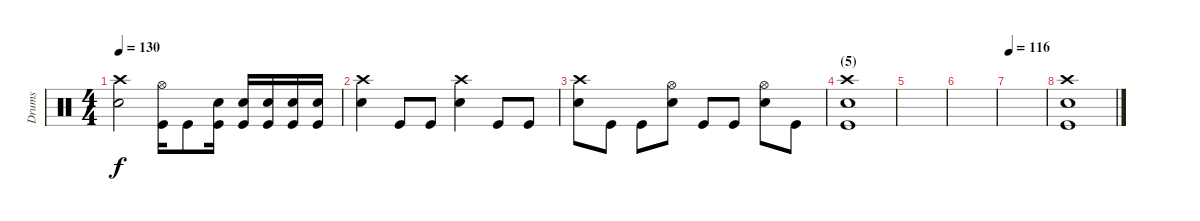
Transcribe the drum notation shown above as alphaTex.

\track ("Drums" "Drums") {instrument percussion}
\staff {score}
\articulation defaults
\ts (4 4)
\tempo 130
\clef neutral
\ks c
("Crash high (hit)" "Snare (hit) 2").2{dy f} ("Hi-Hat (open)" "Kick (hit)").16 "Kick (hit)".8 ("Snare (hit) 2" "Kick (hit)").16 ("Snare (hit) 2" "Kick (hit)").16 ("Snare (hit) 2" "Kick (hit)").16 ("Snare (hit) 2" "Kick (hit)").16 ("Snare (hit) 2" "Kick (hit)").16 |
("Crash high (hit)" "Snare (hit) 2").4 "Kick (hit)".8 "Kick (hit)".8 ("Crash high (hit)" "Snare (hit) 2").4 "Kick (hit)".8 "Kick (hit)".8 |
("Crash high (hit)" "Snare (hit) 2").8 "Kick (hit)".8 "Kick (hit)".8 ("Hi-Hat (open)" "Snare (hit) 2").8 "Kick (hit)".8 "Kick (hit)".8 ("Hi-Hat (open)" "Snare (hit) 2").8 "Kick (hit)".8 |
\section ("" "(5)")
("Crash high (hit)" "Snare (hit) 2" "Kick (hit)").1 |
|
|
\tempo 116
|
("Crash high (hit)" "Snare (hit) 2" "Kick (hit)").1
